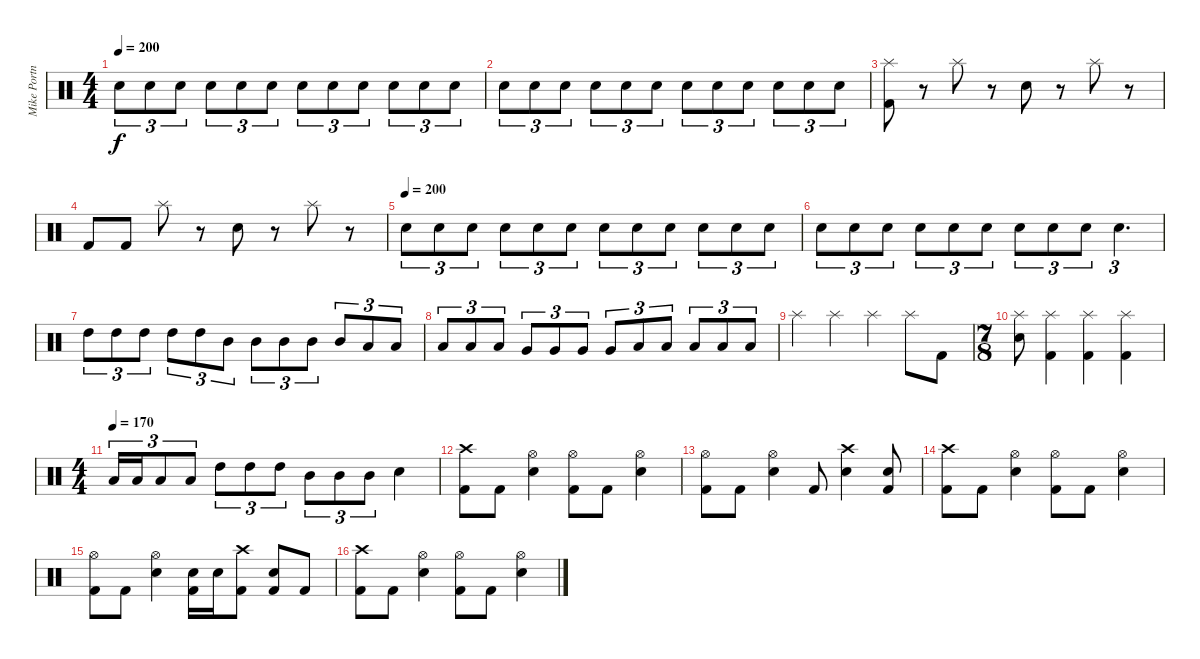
\track ("Mike Portnoy" "Mike Portn") {instrument percussion}
\staff {score}
\articulation defaults
\ts (4 4)
\tempo 200
\clef neutral
\ks c "Electric Snare (hit)".8{tu (3 2) dy f} "Electric Snare (hit)".8{tu (3 2)} "Electric Snare (hit)".8{tu (3 2)} "Electric Snare (hit)".8{tu (3 2)} "Electric Snare (hit)".8{tu (3 2)} "Electric Snare (hit)".8{tu (3 2)} "Electric Snare (hit)".8{tu (3 2)} "Electric Snare (hit)".8{tu (3 2)} "Electric Snare (hit)".8{tu (3 2)} "Electric Snare (hit)".8{tu (3 2)} "Electric Snare (hit)".8{tu (3 2)} "Electric Snare (hit)".8{tu (3 2)}
|
"Electric Snare (hit)".8{tu (3 2)} "Electric Snare (hit)".8{tu (3 2)} "Electric Snare (hit)".8{tu (3 2)} "Electric Snare (hit)".8{tu (3 2)} "Electric Snare (hit)".8{tu (3 2)} "Electric Snare (hit)".8{tu (3 2)} "Electric Snare (hit)".8{tu (3 2)} "Electric Snare (hit)".8{tu (3 2)} "Electric Snare (hit)".8{tu (3 2)} "Electric Snare (hit)".8{tu (3 2)} "Electric Snare (hit)".8{tu (3 2)} "Electric Snare (hit)".8{tu (3 2)} |
("Kick (hit) 2" "Splash (hit)").8 r.8 "Splash (hit)".8 r.8 "Electric Snare (hit)".8 r.8 "Splash (hit)".8 r.8 |
"Kick (hit) 2".8 "Kick (hit) 2".8 "Splash (hit)".8 r.8 "Electric Snare (hit)".8 r.8 "Splash (hit)".8 r.8 |
\tempo (200)
"Electric Snare (hit)".8{tu (3 2)} "Electric Snare (hit)".8{tu (3 2)} "Electric Snare (hit)".8{tu (3 2)} "Electric Snare (hit)".8{tu (3 2)} "Electric Snare (hit)".8{tu (3 2)} "Electric Snare (hit)".8{tu (3 2)} "Electric Snare (hit)".8{tu (3 2)} "Electric Snare (hit)".8{tu (3 2)} "Electric Snare (hit)".8{tu (3 2)} "Electric Snare (hit)".8{tu (3 2)} "Electric Snare (hit)".8{tu (3 2)} "Electric Snare (hit)".8{tu (3 2)} |
"Electric Snare (hit)".8{tu (3 2)} "Electric Snare (hit)".8{tu (3 2)} "Electric Snare (hit)".8{tu (3 2)} "Electric Snare (hit)".8{tu (3 2)} "Electric Snare (hit)".8{tu (3 2)} "Electric Snare (hit)".8{tu (3 2)} "Electric Snare (hit)".8{tu (3 2)} "Electric Snare (hit)".8{tu (3 2)} "Electric Snare (hit)".8{tu (3 2)} "Electric Snare (hit)".4{d tu (3 2)} |
"High Tom (hit)".8{tu (3 2)} "High Tom (hit)".8{tu (3 2)} "High Tom (hit)".8{tu (3 2)} "High Tom (hit)".8{tu (3 2)} "High Tom (hit)".8{tu (3 2)} "Mid Tom (hit)".8{tu (3 2)} "Mid Tom (hit)".8{tu (3 2)} "Mid Tom (hit)".8{tu (3 2)} "Mid Tom (hit)".8{tu (3 2)} "Mid Tom (hit)".8{tu (3 2)} "Low Tom (hit)".8{tu (3 2)} "Low Tom (hit)".8{tu (3 2)} |
"Low Tom (hit)".8{tu (3 2)} "Low Tom (hit)".8{tu (3 2)} "Low Tom (hit)".8{tu (3 2)} "Very Low Tom (hit)".8{tu (3 2)} "Very Low Tom (hit)".8{tu (3 2)} "Very Low Tom (hit)".8{tu (3 2)} "Very Low Tom (hit)".8{tu (3 2)} "Low Floor Tom (hit)".8{tu (3 2)} "Low Floor Tom (hit)".8{tu (3 2)} "Low Floor Tom (hit)".8{tu (3 2)} "Low Floor Tom (hit)".8{tu (3 2)} "Low Floor Tom (hit)".8{tu (3 2)} |
"Splash (hit)".4 "Splash (hit)".4 "Splash (hit)".4 "Splash (hit)".8 "Kick (hit) 2".8 |
\ts (7 8)
("Electric Snare (hit)" "Splash (hit)").8 ("Kick (hit) 2" "Splash (hit)").4 ("Kick (hit) 2" "Splash (hit)").4 ("Kick (hit) 2" "Splash (hit)").4 |
\ts (4 4)
\tempo (170)
"Low Tom (hit)".16{tu (3 2)} "Low Tom (hit)".16{tu (3 2)} "Low Tom (hit)".8{tu (3 2)} "Low Tom (hit)".8{tu (3 2)} "High Tom (hit)".8{tu (3 2)} "High Tom (hit)".8{tu (3 2)} "High Tom (hit)".8{tu (3 2)} "Mid Tom (hit)".8{tu (3 2)} "Mid Tom (hit)".8{tu (3 2)} "Mid Tom (hit)".8{tu (3 2)} "Electric Snare (hit)".4 |
("Kick (hit) 2" "Crash high (hit)").8 "Kick (hit) 2".8 ("Electric Snare (hit)" "Hi-Hat (open)").4 ("Kick (hit) 2" "Hi-Hat (open)").8 "Kick (hit) 2".8 ("Electric Snare (hit)" "Hi-Hat (open)").4 |
("Kick (hit) 2" "Hi-Hat (open)").8 "Kick (hit) 2".8 ("Electric Snare (hit)" "Hi-Hat (open)").4 "Kick (hit) 2".8 ("Electric Snare (hit)" "Crash high (hit)").4 ("Kick (hit) 2" "Electric Snare (hit)").8 |
("Kick (hit) 2" "Crash high (hit)").8 "Kick (hit) 2".8 ("Electric Snare (hit)" "Hi-Hat (open)").4 ("Kick (hit) 2" "Hi-Hat (open)").8 "Kick (hit) 2".8 ("Electric Snare (hit)" "Hi-Hat (open)").4 |
("Kick (hit) 2" "Hi-Hat (open)").8 "Kick (hit) 2".8 ("Electric Snare (hit)" "Hi-Hat (open)").4 ("Kick (hit) 2" "Electric Snare (hit)").16 "Electric Snare (hit)".16 ("Kick (hit) 2" "Crash high (hit)").8 ("Kick (hit) 2" "Electric Snare (hit)").8 "Kick (hit) 2".8 |
("Kick (hit) 2" "Crash high (hit)").8 "Kick (hit) 2".8 ("Electric Snare (hit)" "Hi-Hat (open)").4 ("Kick (hit) 2" "Hi-Hat (open)").8 "Kick (hit) 2".8 ("Electric Snare (hit)" "Hi-Hat (open)").4
